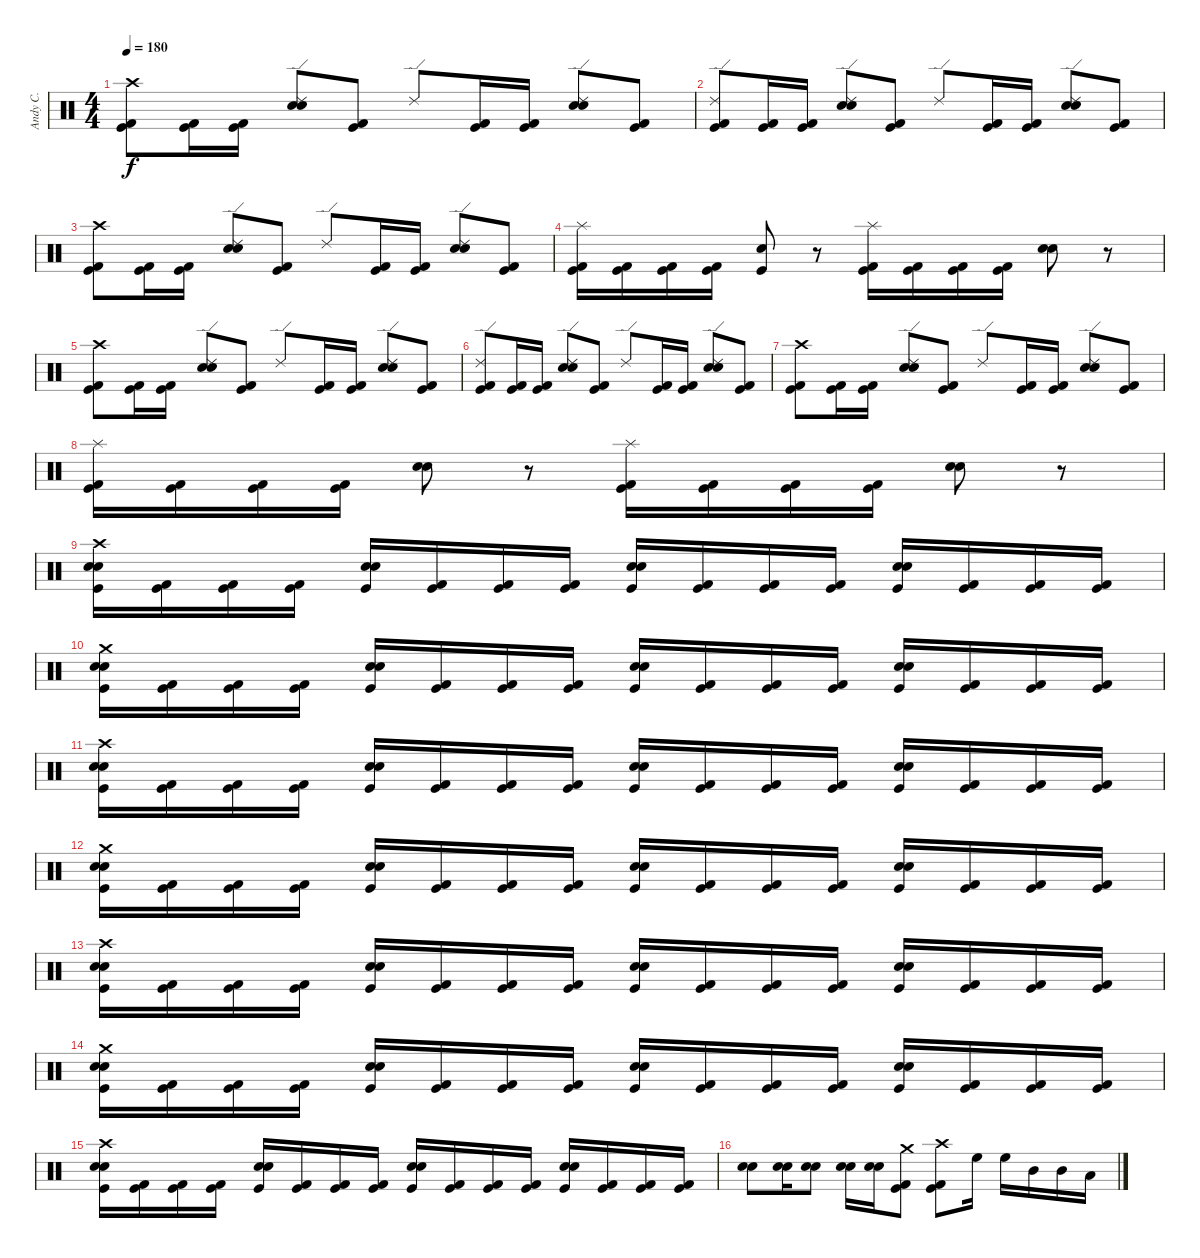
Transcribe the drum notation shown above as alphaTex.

\track ("Andy C." "Andy C.") {instrument percussion}
\staff {score}
\articulation defaults
\ts (4 4)
\tempo 180
\clef neutral
\ks c
("Crash high (hit)" "Kick (hit)" "Kick (hit) 2").8{dy f} ("Kick (hit)" "Kick (hit) 2").16 ("Kick (hit)" "Kick (hit) 2").16 ("Ride (edge) 2" "Snare (hit) 2" "Electric Snare (hit)").8 ("Kick (hit)" "Kick (hit) 2").8 "Ride (edge) 2".8 ("Kick (hit)" "Kick (hit) 2").16 ("Kick (hit)" "Kick (hit) 2").16 ("Ride (edge) 2" "Snare (hit) 2" "Electric Snare (hit)").8 ("Kick (hit)" "Kick (hit) 2").8 |
("Ride (edge) 2" "Kick (hit)" "Kick (hit) 2").8 ("Kick (hit)" "Kick (hit) 2").16 ("Kick (hit)" "Kick (hit) 2").16 ("Ride (edge) 2" "Snare (hit) 2" "Electric Snare (hit)").8 ("Kick (hit)" "Kick (hit) 2").8 "Ride (edge) 2".8 ("Kick (hit)" "Kick (hit) 2").16 ("Kick (hit)" "Kick (hit) 2").16 ("Ride (edge) 2" "Snare (hit) 2" "Electric Snare (hit)").8 ("Kick (hit)" "Kick (hit) 2").8 |
("Crash high (hit)" "Kick (hit)" "Kick (hit) 2").8 ("Kick (hit)" "Kick (hit) 2").16 ("Kick (hit)" "Kick (hit) 2").16 ("Ride (edge) 2" "Snare (hit) 2" "Electric Snare (hit)").8 ("Kick (hit)" "Kick (hit) 2").8 "Ride (edge) 2".8 ("Kick (hit)" "Kick (hit) 2").16 ("Kick (hit)" "Kick (hit) 2").16 ("Ride (edge) 2" "Snare (hit) 2" "Electric Snare (hit)").8 ("Kick (hit)" "Kick (hit) 2").8 |
("Splash (hit)" "Kick (hit)" "Kick (hit) 2").16 ("Kick (hit)" "Kick (hit) 2").16 ("Kick (hit)" "Kick (hit) 2").16 ("Kick (hit)" "Kick (hit) 2").16 ("Kick (hit)" "Electric Snare (hit)").8 r.8 ("Splash (hit)" "Kick (hit)" "Kick (hit) 2").16 ("Kick (hit)" "Kick (hit) 2").16 ("Kick (hit)" "Kick (hit) 2").16 ("Kick (hit)" "Kick (hit) 2").16 ("Snare (hit) 2" "Electric Snare (hit)").8 r.8 |
("Crash high (hit)" "Kick (hit)" "Kick (hit) 2").8 ("Kick (hit)" "Kick (hit) 2").16 ("Kick (hit)" "Kick (hit) 2").16 ("Ride (edge) 2" "Snare (hit) 2" "Electric Snare (hit)").8 ("Kick (hit)" "Kick (hit) 2").8 "Ride (edge) 2".8 ("Kick (hit)" "Kick (hit) 2").16 ("Kick (hit)" "Kick (hit) 2").16 ("Ride (edge) 2" "Snare (hit) 2" "Electric Snare (hit)").8 ("Kick (hit)" "Kick (hit) 2").8 |
("Ride (edge) 2" "Kick (hit)" "Kick (hit) 2").8 ("Kick (hit)" "Kick (hit) 2").16 ("Kick (hit)" "Kick (hit) 2").16 ("Ride (edge) 2" "Snare (hit) 2" "Electric Snare (hit)").8 ("Kick (hit)" "Kick (hit) 2").8 "Ride (edge) 2".8 ("Kick (hit)" "Kick (hit) 2").16 ("Kick (hit)" "Kick (hit) 2").16 ("Ride (edge) 2" "Snare (hit) 2" "Electric Snare (hit)").8 ("Kick (hit)" "Kick (hit) 2").8 |
("Crash high (hit)" "Kick (hit)" "Kick (hit) 2").8 ("Kick (hit)" "Kick (hit) 2").16 ("Kick (hit)" "Kick (hit) 2").16 ("Ride (edge) 2" "Snare (hit) 2" "Electric Snare (hit)").8 ("Kick (hit)" "Kick (hit) 2").8 "Ride (edge) 2".8 ("Kick (hit)" "Kick (hit) 2").16 ("Kick (hit)" "Kick (hit) 2").16 ("Ride (edge) 2" "Snare (hit) 2" "Electric Snare (hit)").8 ("Kick (hit)" "Kick (hit) 2").8 |
("Splash (hit)" "Kick (hit)" "Kick (hit) 2").16 ("Kick (hit)" "Kick (hit) 2").16 ("Kick (hit)" "Kick (hit) 2").16 ("Kick (hit)" "Kick (hit) 2").16 ("Snare (hit) 2" "Electric Snare (hit)").8 r.8 ("Splash (hit)" "Kick (hit)" "Kick (hit) 2").16 ("Kick (hit)" "Kick (hit) 2").16 ("Kick (hit)" "Kick (hit) 2").16 ("Kick (hit)" "Kick (hit) 2").16 ("Snare (hit) 2" "Electric Snare (hit)").8 r.8 |
("Crash high (hit)" "Kick (hit)" "Snare (hit) 2" "Electric Snare (hit)").16{balance 8} ("Kick (hit)" "Kick (hit) 2").16 ("Kick (hit)" "Kick (hit) 2").16 ("Kick (hit)" "Kick (hit) 2").16 ("Kick (hit)" "Snare (hit) 2" "Electric Snare (hit)").16 ("Kick (hit)" "Kick (hit) 2").16 ("Kick (hit)" "Kick (hit) 2").16 ("Kick (hit)" "Kick (hit) 2").16 ("Kick (hit)" "Snare (hit) 2" "Electric Snare (hit)").16 ("Kick (hit)" "Kick (hit) 2").16 ("Kick (hit)" "Kick (hit) 2").16 ("Kick (hit)" "Kick (hit) 2").16 ("Kick (hit)" "Snare (hit) 2" "Electric Snare (hit)").16 ("Kick (hit)" "Kick (hit) 2").16 ("Kick (hit)" "Kick (hit) 2").16 ("Kick (hit)" "Kick (hit) 2").16 |
("Crash medium (hit)" "Kick (hit)" "Snare (hit) 2" "Electric Snare (hit)").16 ("Kick (hit)" "Kick (hit) 2").16 ("Kick (hit)" "Kick (hit) 2").16 ("Kick (hit)" "Kick (hit) 2").16 ("Kick (hit)" "Snare (hit) 2" "Electric Snare (hit)").16 ("Kick (hit)" "Kick (hit) 2").16 ("Kick (hit)" "Kick (hit) 2").16 ("Kick (hit)" "Kick (hit) 2").16 ("Kick (hit)" "Snare (hit) 2" "Electric Snare (hit)").16 ("Kick (hit)" "Kick (hit) 2").16 ("Kick (hit)" "Kick (hit) 2").16 ("Kick (hit)" "Kick (hit) 2").16 ("Kick (hit)" "Snare (hit) 2" "Electric Snare (hit)").16 ("Kick (hit)" "Kick (hit) 2").16 ("Kick (hit)" "Kick (hit) 2").16 ("Kick (hit)" "Kick (hit) 2").16 |
("Crash high (hit)" "Kick (hit)" "Snare (hit) 2" "Electric Snare (hit)").16{balance 8} ("Kick (hit)" "Kick (hit) 2").16 ("Kick (hit)" "Kick (hit) 2").16 ("Kick (hit)" "Kick (hit) 2").16 ("Kick (hit)" "Snare (hit) 2" "Electric Snare (hit)").16 ("Kick (hit)" "Kick (hit) 2").16 ("Kick (hit)" "Kick (hit) 2").16 ("Kick (hit)" "Kick (hit) 2").16 ("Kick (hit)" "Snare (hit) 2" "Electric Snare (hit)").16 ("Kick (hit)" "Kick (hit) 2").16 ("Kick (hit)" "Kick (hit) 2").16 ("Kick (hit)" "Kick (hit) 2").16 ("Kick (hit)" "Snare (hit) 2" "Electric Snare (hit)").16 ("Kick (hit)" "Kick (hit) 2").16 ("Kick (hit)" "Kick (hit) 2").16 ("Kick (hit)" "Kick (hit) 2").16 |
("Crash medium (hit)" "Kick (hit)" "Snare (hit) 2" "Electric Snare (hit)").16 ("Kick (hit)" "Kick (hit) 2").16 ("Kick (hit)" "Kick (hit) 2").16 ("Kick (hit)" "Kick (hit) 2").16 ("Kick (hit)" "Snare (hit) 2" "Electric Snare (hit)").16 ("Kick (hit)" "Kick (hit) 2").16 ("Kick (hit)" "Kick (hit) 2").16 ("Kick (hit)" "Kick (hit) 2").16 ("Kick (hit)" "Snare (hit) 2" "Electric Snare (hit)").16 ("Kick (hit)" "Kick (hit) 2").16 ("Kick (hit)" "Kick (hit) 2").16 ("Kick (hit)" "Kick (hit) 2").16 ("Kick (hit)" "Snare (hit) 2" "Electric Snare (hit)").16 ("Kick (hit)" "Kick (hit) 2").16 ("Kick (hit)" "Kick (hit) 2").16 ("Kick (hit)" "Kick (hit) 2").16 |
("Crash high (hit)" "Kick (hit)" "Snare (hit) 2" "Electric Snare (hit)").16{balance 8} ("Kick (hit)" "Kick (hit) 2").16 ("Kick (hit)" "Kick (hit) 2").16 ("Kick (hit)" "Kick (hit) 2").16 ("Kick (hit)" "Snare (hit) 2" "Electric Snare (hit)").16 ("Kick (hit)" "Kick (hit) 2").16 ("Kick (hit)" "Kick (hit) 2").16 ("Kick (hit)" "Kick (hit) 2").16 ("Kick (hit)" "Snare (hit) 2" "Electric Snare (hit)").16 ("Kick (hit)" "Kick (hit) 2").16 ("Kick (hit)" "Kick (hit) 2").16 ("Kick (hit)" "Kick (hit) 2").16 ("Kick (hit)" "Snare (hit) 2" "Electric Snare (hit)").16 ("Kick (hit)" "Kick (hit) 2").16 ("Kick (hit)" "Kick (hit) 2").16 ("Kick (hit)" "Kick (hit) 2").16 |
("Crash medium (hit)" "Kick (hit)" "Snare (hit) 2" "Electric Snare (hit)").16 ("Kick (hit)" "Kick (hit) 2").16 ("Kick (hit)" "Kick (hit) 2").16 ("Kick (hit)" "Kick (hit) 2").16 ("Kick (hit)" "Snare (hit) 2" "Electric Snare (hit)").16 ("Kick (hit)" "Kick (hit) 2").16 ("Kick (hit)" "Kick (hit) 2").16 ("Kick (hit)" "Kick (hit) 2").16 ("Kick (hit)" "Snare (hit) 2" "Electric Snare (hit)").16 ("Kick (hit)" "Kick (hit) 2").16 ("Kick (hit)" "Kick (hit) 2").16 ("Kick (hit)" "Kick (hit) 2").16 ("Kick (hit)" "Snare (hit) 2" "Electric Snare (hit)").16 ("Kick (hit)" "Kick (hit) 2").16 ("Kick (hit)" "Kick (hit) 2").16 ("Kick (hit)" "Kick (hit) 2").16 |
("Crash high (hit)" "Kick (hit)" "Snare (hit) 2" "Electric Snare (hit)").16{balance 8} ("Kick (hit)" "Kick (hit) 2").16 ("Kick (hit)" "Kick (hit) 2").16 ("Kick (hit)" "Kick (hit) 2").16 ("Kick (hit)" "Snare (hit) 2" "Electric Snare (hit)").16 ("Kick (hit)" "Kick (hit) 2").16 ("Kick (hit)" "Kick (hit) 2").16 ("Kick (hit)" "Kick (hit) 2").16 ("Kick (hit)" "Snare (hit) 2" "Electric Snare (hit)").16 ("Kick (hit)" "Kick (hit) 2").16 ("Kick (hit)" "Kick (hit) 2").16 ("Kick (hit)" "Kick (hit) 2").16 ("Kick (hit)" "Snare (hit) 2" "Electric Snare (hit)").16 ("Kick (hit)" "Kick (hit) 2").16 ("Kick (hit)" "Kick (hit) 2").16 ("Kick (hit)" "Kick (hit) 2").16 |
("Snare (hit) 2" "Electric Snare (hit)").8 ("Snare (hit) 2" "Electric Snare (hit)").16 ("Snare (hit) 2" "Electric Snare (hit)").8 ("Snare (hit) 2" "Electric Snare (hit)").16 ("Snare (hit) 2" "Electric Snare (hit)").16 ("Crash medium (hit)" "Kick (hit)" "Kick (hit) 2").8 ("Crash high (hit)" "Kick (hit)" "Kick (hit) 2").8 "High Floor Tom (hit)".16 "High Floor Tom (hit)".16 "Mid Tom (hit)".16 "Mid Tom (hit)".16 "Low Tom (hit)".16
